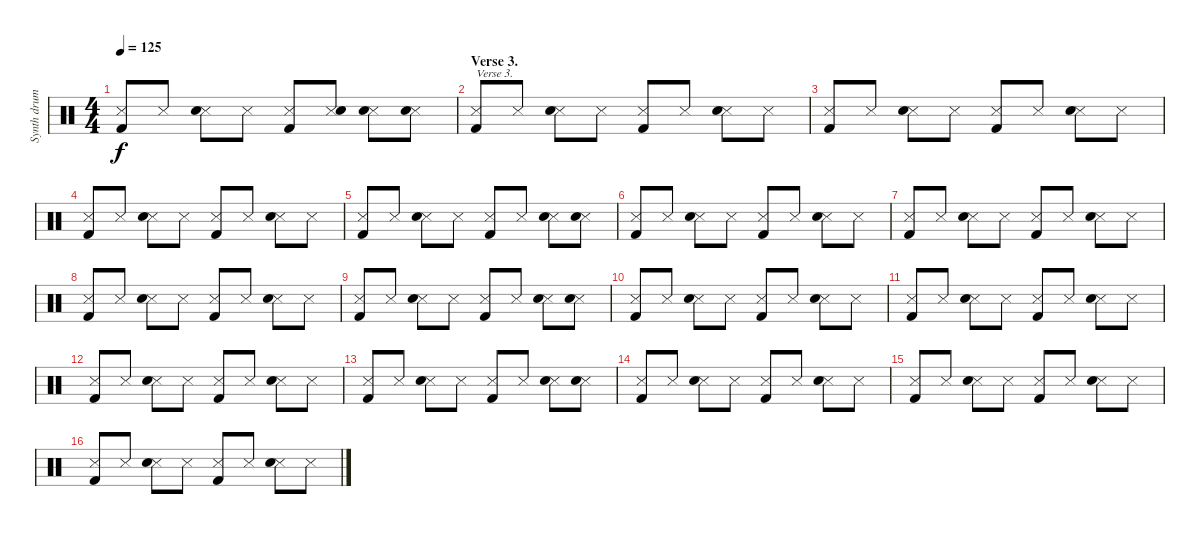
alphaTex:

\track ("Synth drums" "Synth drum") {instrument percussion}
\staff {score}
\articulation defaults
\ts (4 4)
\tempo 125
\clef neutral
\ks c
("Snare (side stick) 3" "Kick (hit) 2").8{dy f} "Snare (side stick) 3".8 ("Snare (side stick) 3" "Electric Snare (hit)").8 "Snare (side stick) 3".8 ("Snare (side stick) 3" "Kick (hit) 2").8 ("Snare (side stick) 3" "Electric Snare (hit)").8 ("Snare (side stick) 3" "Electric Snare (hit)").8 ("Snare (side stick) 3" "Electric Snare (hit)").8 |
\section ("" "Verse 3.")
("Snare (side stick) 3" "Kick (hit) 2").8{txt "Verse 3."} "Snare (side stick) 3".8 ("Snare (side stick) 3" "Electric Snare (hit)").8 "Snare (side stick) 3".8 ("Snare (side stick) 3" "Kick (hit) 2").8 "Snare (side stick) 3".8 ("Snare (side stick) 3" "Electric Snare (hit)").8 "Snare (side stick) 3".8 |
("Snare (side stick) 3" "Kick (hit) 2").8 "Snare (side stick) 3".8 ("Snare (side stick) 3" "Electric Snare (hit)").8 "Snare (side stick) 3".8 ("Snare (side stick) 3" "Kick (hit) 2").8 "Snare (side stick) 3".8 ("Snare (side stick) 3" "Electric Snare (hit)").8 "Snare (side stick) 3".8 |
("Snare (side stick) 3" "Kick (hit) 2").8 "Snare (side stick) 3".8 ("Snare (side stick) 3" "Electric Snare (hit)").8 "Snare (side stick) 3".8 ("Snare (side stick) 3" "Kick (hit) 2").8 "Snare (side stick) 3".8 ("Snare (side stick) 3" "Electric Snare (hit)").8 "Snare (side stick) 3".8 |
("Snare (side stick) 3" "Kick (hit) 2").8 "Snare (side stick) 3".8 ("Snare (side stick) 3" "Electric Snare (hit)").8 "Snare (side stick) 3".8 ("Snare (side stick) 3" "Kick (hit) 2").8 "Snare (side stick) 3".8 ("Snare (side stick) 3" "Electric Snare (hit)").8 ("Snare (side stick) 3" "Electric Snare (hit)").8 |
("Snare (side stick) 3" "Kick (hit) 2").8 "Snare (side stick) 3".8 ("Snare (side stick) 3" "Electric Snare (hit)").8 "Snare (side stick) 3".8 ("Snare (side stick) 3" "Kick (hit) 2").8 "Snare (side stick) 3".8 ("Snare (side stick) 3" "Electric Snare (hit)").8 "Snare (side stick) 3".8 |
("Snare (side stick) 3" "Kick (hit) 2").8 "Snare (side stick) 3".8 ("Snare (side stick) 3" "Electric Snare (hit)").8 "Snare (side stick) 3".8 ("Snare (side stick) 3" "Kick (hit) 2").8 "Snare (side stick) 3".8 ("Snare (side stick) 3" "Electric Snare (hit)").8 "Snare (side stick) 3".8 |
("Snare (side stick) 3" "Kick (hit) 2").8 "Snare (side stick) 3".8 ("Snare (side stick) 3" "Electric Snare (hit)").8 "Snare (side stick) 3".8 ("Snare (side stick) 3" "Kick (hit) 2").8 "Snare (side stick) 3".8 ("Snare (side stick) 3" "Electric Snare (hit)").8 "Snare (side stick) 3".8 |
("Snare (side stick) 3" "Kick (hit) 2").8 "Snare (side stick) 3".8 ("Snare (side stick) 3" "Electric Snare (hit)").8 "Snare (side stick) 3".8 ("Snare (side stick) 3" "Kick (hit) 2").8 "Snare (side stick) 3".8 ("Snare (side stick) 3" "Electric Snare (hit)").8 ("Snare (side stick) 3" "Electric Snare (hit)").8 |
("Snare (side stick) 3" "Kick (hit) 2").8 "Snare (side stick) 3".8 ("Snare (side stick) 3" "Electric Snare (hit)").8 "Snare (side stick) 3".8 ("Snare (side stick) 3" "Kick (hit) 2").8 "Snare (side stick) 3".8 ("Snare (side stick) 3" "Electric Snare (hit)").8 "Snare (side stick) 3".8 |
("Snare (side stick) 3" "Kick (hit) 2").8 "Snare (side stick) 3".8 ("Snare (side stick) 3" "Electric Snare (hit)").8 "Snare (side stick) 3".8 ("Snare (side stick) 3" "Kick (hit) 2").8 "Snare (side stick) 3".8 ("Snare (side stick) 3" "Electric Snare (hit)").8 "Snare (side stick) 3".8 |
("Snare (side stick) 3" "Kick (hit) 2").8 "Snare (side stick) 3".8 ("Snare (side stick) 3" "Electric Snare (hit)").8 "Snare (side stick) 3".8 ("Snare (side stick) 3" "Kick (hit) 2").8 "Snare (side stick) 3".8 ("Snare (side stick) 3" "Electric Snare (hit)").8 "Snare (side stick) 3".8 |
("Snare (side stick) 3" "Kick (hit) 2").8 "Snare (side stick) 3".8 ("Snare (side stick) 3" "Electric Snare (hit)").8 "Snare (side stick) 3".8 ("Snare (side stick) 3" "Kick (hit) 2").8 "Snare (side stick) 3".8 ("Snare (side stick) 3" "Electric Snare (hit)").8 ("Snare (side stick) 3" "Electric Snare (hit)").8 |
("Snare (side stick) 3" "Kick (hit) 2").8 "Snare (side stick) 3".8 ("Snare (side stick) 3" "Electric Snare (hit)").8 "Snare (side stick) 3".8 ("Snare (side stick) 3" "Kick (hit) 2").8 "Snare (side stick) 3".8 ("Snare (side stick) 3" "Electric Snare (hit)").8 "Snare (side stick) 3".8 |
("Snare (side stick) 3" "Kick (hit) 2").8 "Snare (side stick) 3".8 ("Snare (side stick) 3" "Electric Snare (hit)").8 "Snare (side stick) 3".8 ("Snare (side stick) 3" "Kick (hit) 2").8 "Snare (side stick) 3".8 ("Snare (side stick) 3" "Electric Snare (hit)").8 "Snare (side stick) 3".8 |
("Snare (side stick) 3" "Kick (hit) 2").8 "Snare (side stick) 3".8 ("Snare (side stick) 3" "Electric Snare (hit)").8 "Snare (side stick) 3".8 ("Snare (side stick) 3" "Kick (hit) 2").8 "Snare (side stick) 3".8 ("Snare (side stick) 3" "Electric Snare (hit)").8 "Snare (side stick) 3".8
